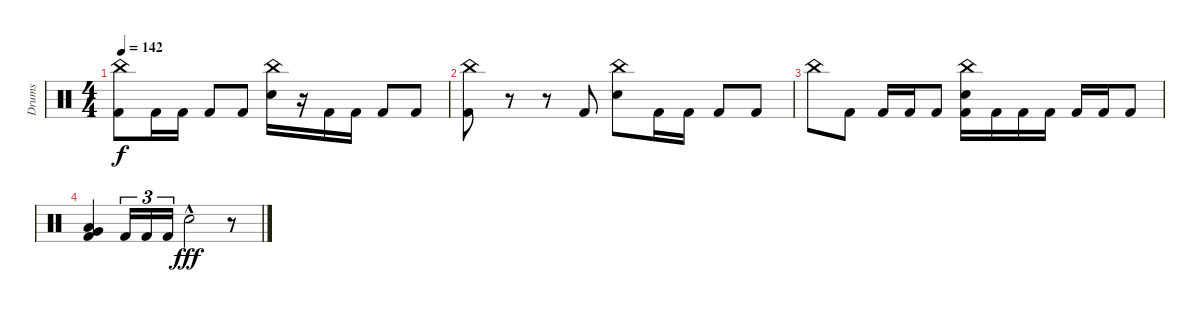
\track ("Drums" "Drums") {instrument percussion}
\staff {score}
\articulation defaults
\ts (4 4)
\tempo 142
\clef neutral
\ks c
("China (hit)" "Kick (hit) 2").8{dy f} "Kick (hit) 2".16 "Kick (hit) 2".16 "Kick (hit) 2".8 "Kick (hit) 2".8 ("China (hit)" "Electric Snare (hit)").16 r.16 "Kick (hit) 2".16 "Kick (hit) 2".16 "Kick (hit) 2".8 "Kick (hit) 2".8 |
("China (hit)" "Kick (hit) 2").8 r.8 r.8 "Kick (hit) 2".8 ("China (hit)" "Electric Snare (hit)").8 "Kick (hit) 2".16 "Kick (hit) 2".16 "Kick (hit) 2".8 "Kick (hit) 2".8 |
"China (hit)".8 "Kick (hit) 2".8 "Kick (hit) 2".16 "Kick (hit) 2".16 "Kick (hit) 2".8 ("China (hit)" "Electric Snare (hit)" "Kick (hit) 2").16 "Kick (hit) 2".16 "Kick (hit) 2".16 "Kick (hit) 2".16 "Kick (hit) 2".16 "Kick (hit) 2".16 "Kick (hit) 2".8 |
("Very Low Tom (hit)" "Low Floor Tom (hit)" "Kick (hit) 2").4 "Kick (hit) 2".16{tu (3 2)} "Kick (hit) 2".16{tu (3 2)} "Kick (hit) 2".16{tu (3 2)} "Electric Snare (hit)"{hac}.2{dy fff} r.8
